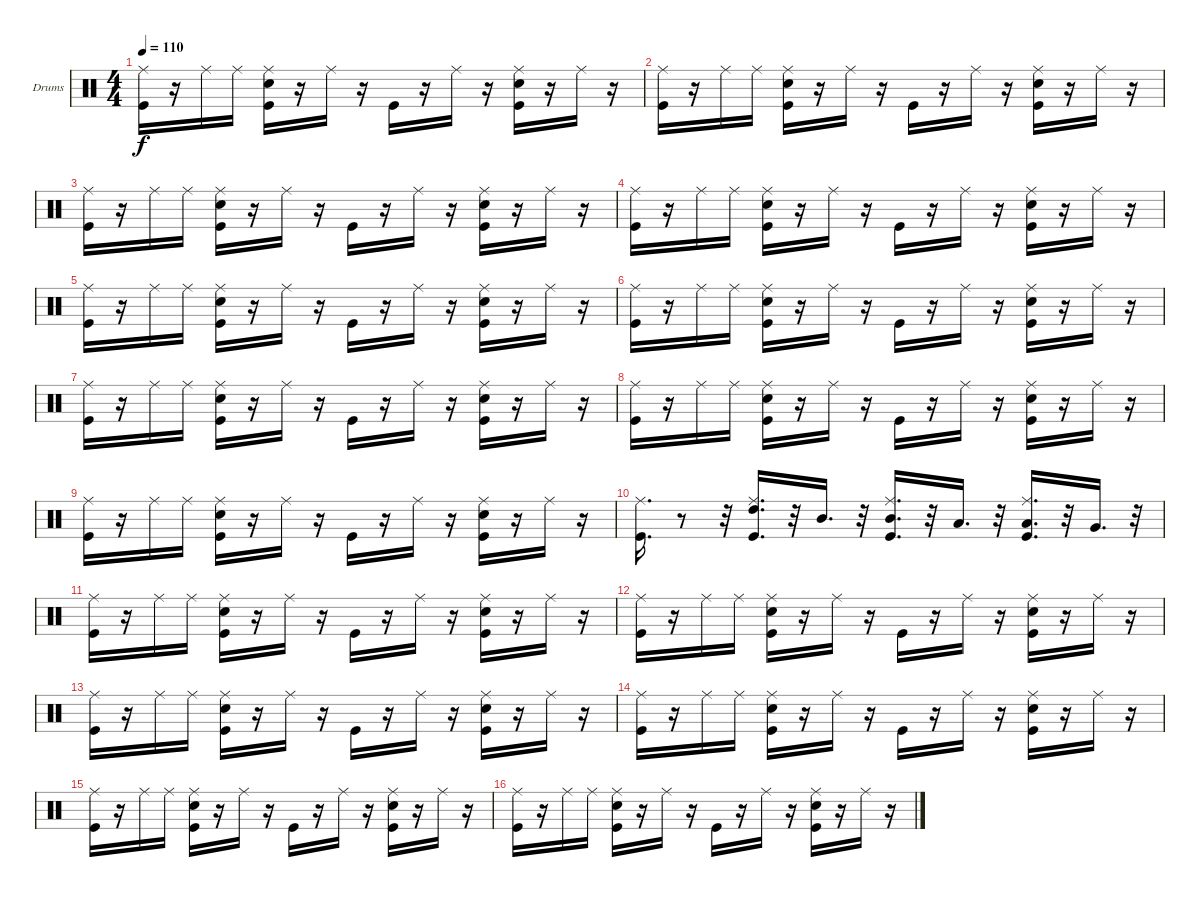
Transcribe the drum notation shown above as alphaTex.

\bracketExtendMode groupsimilarinstruments
\firstSystemTrackNameOrientation horizontal
\otherSystemsTrackNameOrientation horizontal
\track ("Drumkit" "Drums") {instrument percussion}
\staff {score}
\articulation defaults
\ts (4 4)
\tempo 110
\clef neutral
\ks c
("Kick (hit)" "Ride (middle)").16{dy f} r.16 "Ride (middle)".16 "Ride (middle)".16 ("Snare (hit) 2" "Ride (middle)" "Kick (hit)").16 r.16 "Ride (middle)".16 r.16 "Kick (hit)".16 r.16 "Ride (middle)".16 r.16 ("Snare (hit) 2" "Ride (middle)" "Kick (hit)").16 r.16 "Ride (middle)".16 r.16 |
("Kick (hit)" "Ride (middle)").16 r.16 "Ride (middle)".16 "Ride (middle)".16 ("Snare (hit) 2" "Ride (middle)" "Kick (hit)").16 r.16 "Ride (middle)".16 r.16 "Kick (hit)".16 r.16 "Ride (middle)".16 r.16 ("Snare (hit) 2" "Ride (middle)" "Kick (hit)").16 r.16 "Ride (middle)".16 r.16 |
("Kick (hit)" "Ride (middle)").16 r.16 "Ride (middle)".16 "Ride (middle)".16 ("Snare (hit) 2" "Ride (middle)" "Kick (hit)").16 r.16 "Ride (middle)".16 r.16 "Kick (hit)".16 r.16 "Ride (middle)".16 r.16 ("Snare (hit) 2" "Ride (middle)" "Kick (hit)").16 r.16 "Ride (middle)".16 r.16 |
("Kick (hit)" "Ride (middle)").16 r.16 "Ride (middle)".16 "Ride (middle)".16 ("Snare (hit) 2" "Ride (middle)" "Kick (hit)").16 r.16 "Ride (middle)".16 r.16 "Kick (hit)".16 r.16 "Ride (middle)".16 r.16 ("Snare (hit) 2" "Ride (middle)" "Kick (hit)").16 r.16 "Ride (middle)".16 r.16 |
("Kick (hit)" "Ride (middle)").16 r.16 "Ride (middle)".16 "Ride (middle)".16 ("Snare (hit) 2" "Ride (middle)" "Kick (hit)").16 r.16 "Ride (middle)".16 r.16 "Kick (hit)".16 r.16 "Ride (middle)".16 r.16 ("Snare (hit) 2" "Ride (middle)" "Kick (hit)").16 r.16 "Ride (middle)".16 r.16 |
("Kick (hit)" "Ride (middle)").16 r.16 "Ride (middle)".16 "Ride (middle)".16 ("Snare (hit) 2" "Ride (middle)" "Kick (hit)").16 r.16 "Ride (middle)".16 r.16 "Kick (hit)".16 r.16 "Ride (middle)".16 r.16 ("Snare (hit) 2" "Ride (middle)" "Kick (hit)").16 r.16 "Ride (middle)".16 r.16 |
("Kick (hit)" "Ride (middle)").16 r.16 "Ride (middle)".16 "Ride (middle)".16 ("Snare (hit) 2" "Ride (middle)" "Kick (hit)").16 r.16 "Ride (middle)".16 r.16 "Kick (hit)".16 r.16 "Ride (middle)".16 r.16 ("Snare (hit) 2" "Ride (middle)" "Kick (hit)").16 r.16 "Ride (middle)".16 r.16 |
("Kick (hit)" "Ride (middle)").16 r.16 "Ride (middle)".16 "Ride (middle)".16 ("Snare (hit) 2" "Ride (middle)" "Kick (hit)").16 r.16 "Ride (middle)".16 r.16 "Kick (hit)".16 r.16 "Ride (middle)".16 r.16 ("Snare (hit) 2" "Ride (middle)" "Kick (hit)").16 r.16 "Ride (middle)".16 r.16 |
("Kick (hit)" "Ride (middle)").16 r.16 "Ride (middle)".16 "Ride (middle)".16 ("Snare (hit) 2" "Ride (middle)" "Kick (hit)").16 r.16 "Ride (middle)".16 r.16 "Kick (hit)".16 r.16 "Ride (middle)".16 r.16 ("Snare (hit) 2" "Ride (middle)" "Kick (hit)").16 r.16 "Ride (middle)".16 r.16 |
("Ride (middle)" "Kick (hit)").16{d} r.8 r.32 ("Ride (middle)" "High Tom (hit)" "Kick (hit)").16{d} r.32 "Mid Tom (hit)".16{d} r.32 ("Ride (middle)" "Mid Tom (hit)" "Kick (hit)").16{d} r.32 "Low Tom (hit)".16{d} r.32 ("Ride (middle)" "Low Tom (hit)" "Kick (hit)").16{d} r.32 "Very Low Tom (hit)".16{d} r.32 |
("Kick (hit)" "Ride (middle)").16 r.16 "Ride (middle)".16 "Ride (middle)".16 ("Snare (hit) 2" "Ride (middle)" "Kick (hit)").16 r.16 "Ride (middle)".16 r.16 "Kick (hit)".16 r.16 "Ride (middle)".16 r.16 ("Snare (hit) 2" "Ride (middle)" "Kick (hit)").16 r.16 "Ride (middle)".16 r.16 |
("Kick (hit)" "Ride (middle)").16 r.16 "Ride (middle)".16 "Ride (middle)".16 ("Snare (hit) 2" "Ride (middle)" "Kick (hit)").16 r.16 "Ride (middle)".16 r.16 "Kick (hit)".16 r.16 "Ride (middle)".16 r.16 ("Snare (hit) 2" "Ride (middle)" "Kick (hit)").16 r.16 "Ride (middle)".16 r.16 |
("Kick (hit)" "Ride (middle)").16 r.16 "Ride (middle)".16 "Ride (middle)".16 ("Snare (hit) 2" "Ride (middle)" "Kick (hit)").16 r.16 "Ride (middle)".16 r.16 "Kick (hit)".16 r.16 "Ride (middle)".16 r.16 ("Snare (hit) 2" "Ride (middle)" "Kick (hit)").16 r.16 "Ride (middle)".16 r.16 |
("Kick (hit)" "Ride (middle)").16 r.16 "Ride (middle)".16 "Ride (middle)".16 ("Snare (hit) 2" "Ride (middle)" "Kick (hit)").16 r.16 "Ride (middle)".16 r.16 "Kick (hit)".16 r.16 "Ride (middle)".16 r.16 ("Snare (hit) 2" "Ride (middle)" "Kick (hit)").16 r.16 "Ride (middle)".16 r.16 |
("Kick (hit)" "Ride (middle)").16 r.16 "Ride (middle)".16 "Ride (middle)".16 ("Snare (hit) 2" "Ride (middle)" "Kick (hit)").16 r.16 "Ride (middle)".16 r.16 "Kick (hit)".16 r.16 "Ride (middle)".16 r.16 ("Snare (hit) 2" "Ride (middle)" "Kick (hit)").16 r.16 "Ride (middle)".16 r.16 |
("Kick (hit)" "Ride (middle)").16 r.16 "Ride (middle)".16 "Ride (middle)".16 ("Snare (hit) 2" "Ride (middle)" "Kick (hit)").16 r.16 "Ride (middle)".16 r.16 "Kick (hit)".16 r.16 "Ride (middle)".16 r.16 ("Snare (hit) 2" "Ride (middle)" "Kick (hit)").16 r.16 "Ride (middle)".16 r.16
